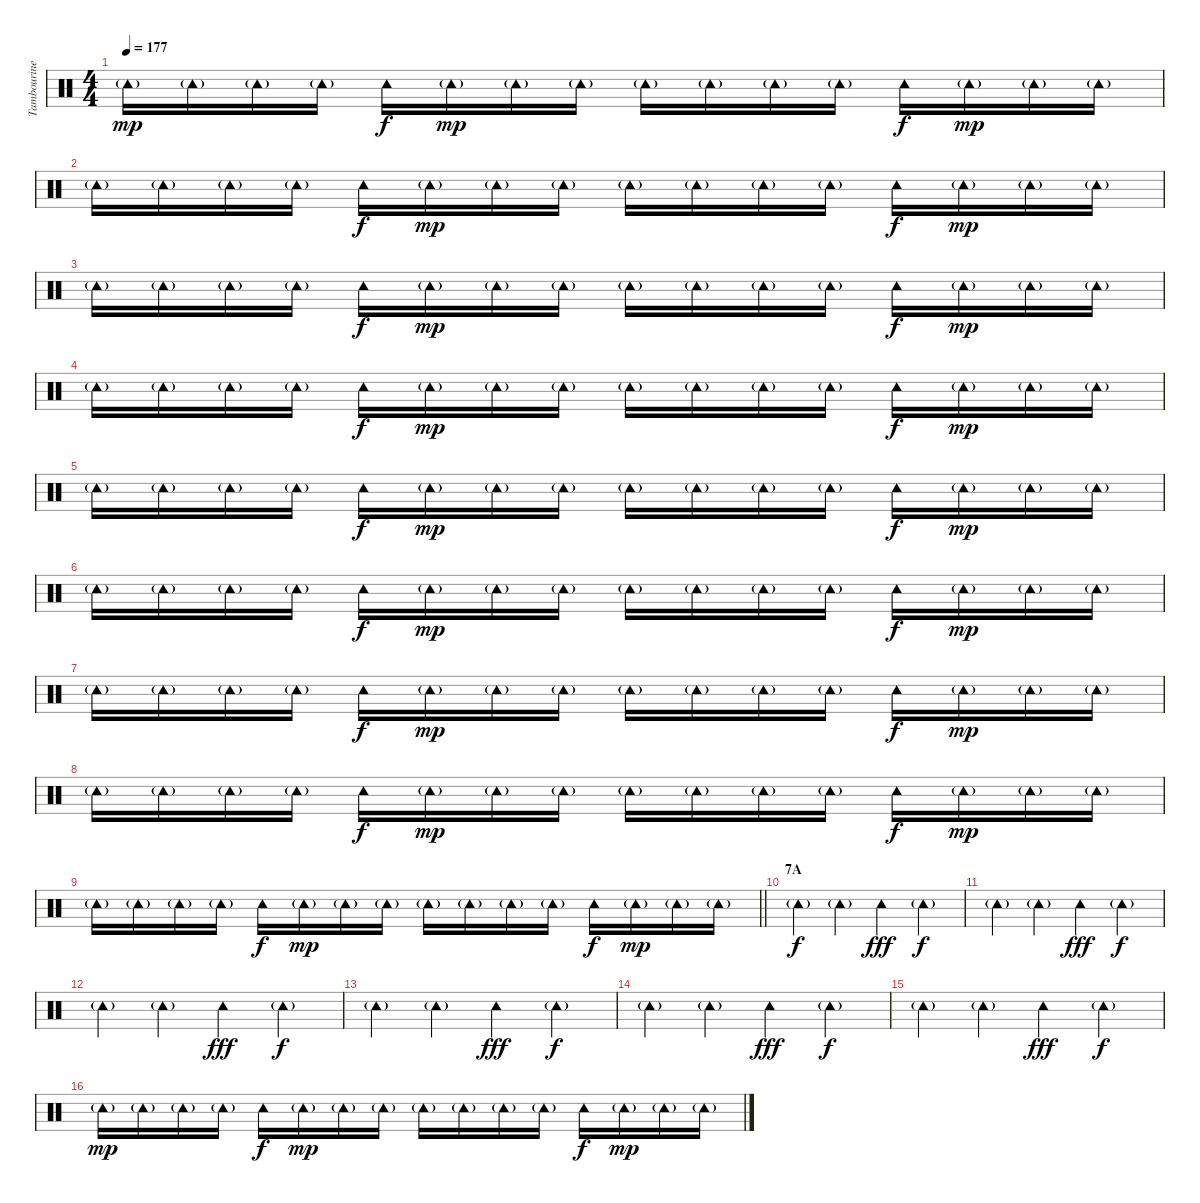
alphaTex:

\track ("Tambourine" "Tambourine") {instrument percussion}
\staff {score}
\articulation defaults
\ts (4 4)
\tempo 177
\clef neutral
\ks c "Tambourine (hit)"{g}.16{dy mp} "Tambourine (hit)"{g}.16 "Tambourine (hit)"{g}.16 "Tambourine (hit)"{g}.16 "Tambourine (hit)".16{dy f} "Tambourine (hit)"{g}.16{dy mp} "Tambourine (hit)"{g}.16 "Tambourine (hit)"{g}.16 "Tambourine (hit)"{g}.16 "Tambourine (hit)"{g}.16 "Tambourine (hit)"{g}.16 "Tambourine (hit)"{g}.16 "Tambourine (hit)".16{dy f} "Tambourine (hit)"{g}.16{dy mp} "Tambourine (hit)"{g}.16 "Tambourine (hit)"{g}.16
|
"Tambourine (hit)"{g}.16 "Tambourine (hit)"{g}.16 "Tambourine (hit)"{g}.16 "Tambourine (hit)"{g}.16 "Tambourine (hit)".16{dy f} "Tambourine (hit)"{g}.16{dy mp} "Tambourine (hit)"{g}.16 "Tambourine (hit)"{g}.16 "Tambourine (hit)"{g}.16 "Tambourine (hit)"{g}.16 "Tambourine (hit)"{g}.16 "Tambourine (hit)"{g}.16 "Tambourine (hit)".16{dy f} "Tambourine (hit)"{g}.16{dy mp} "Tambourine (hit)"{g}.16 "Tambourine (hit)"{g}.16 |
"Tambourine (hit)"{g}.16 "Tambourine (hit)"{g}.16 "Tambourine (hit)"{g}.16 "Tambourine (hit)"{g}.16 "Tambourine (hit)".16{dy f} "Tambourine (hit)"{g}.16{dy mp} "Tambourine (hit)"{g}.16 "Tambourine (hit)"{g}.16 "Tambourine (hit)"{g}.16 "Tambourine (hit)"{g}.16 "Tambourine (hit)"{g}.16 "Tambourine (hit)"{g}.16 "Tambourine (hit)".16{dy f} "Tambourine (hit)"{g}.16{dy mp} "Tambourine (hit)"{g}.16 "Tambourine (hit)"{g}.16 |
"Tambourine (hit)"{g}.16 "Tambourine (hit)"{g}.16 "Tambourine (hit)"{g}.16 "Tambourine (hit)"{g}.16 "Tambourine (hit)".16{dy f} "Tambourine (hit)"{g}.16{dy mp} "Tambourine (hit)"{g}.16 "Tambourine (hit)"{g}.16 "Tambourine (hit)"{g}.16 "Tambourine (hit)"{g}.16 "Tambourine (hit)"{g}.16 "Tambourine (hit)"{g}.16 "Tambourine (hit)".16{dy f} "Tambourine (hit)"{g}.16{dy mp} "Tambourine (hit)"{g}.16 "Tambourine (hit)"{g}.16 |
"Tambourine (hit)"{g}.16 "Tambourine (hit)"{g}.16 "Tambourine (hit)"{g}.16 "Tambourine (hit)"{g}.16 "Tambourine (hit)".16{dy f} "Tambourine (hit)"{g}.16{dy mp} "Tambourine (hit)"{g}.16 "Tambourine (hit)"{g}.16 "Tambourine (hit)"{g}.16 "Tambourine (hit)"{g}.16 "Tambourine (hit)"{g}.16 "Tambourine (hit)"{g}.16 "Tambourine (hit)".16{dy f} "Tambourine (hit)"{g}.16{dy mp} "Tambourine (hit)"{g}.16 "Tambourine (hit)"{g}.16 |
"Tambourine (hit)"{g}.16 "Tambourine (hit)"{g}.16 "Tambourine (hit)"{g}.16 "Tambourine (hit)"{g}.16 "Tambourine (hit)".16{dy f} "Tambourine (hit)"{g}.16{dy mp} "Tambourine (hit)"{g}.16 "Tambourine (hit)"{g}.16 "Tambourine (hit)"{g}.16 "Tambourine (hit)"{g}.16 "Tambourine (hit)"{g}.16 "Tambourine (hit)"{g}.16 "Tambourine (hit)".16{dy f} "Tambourine (hit)"{g}.16{dy mp} "Tambourine (hit)"{g}.16 "Tambourine (hit)"{g}.16 |
"Tambourine (hit)"{g}.16 "Tambourine (hit)"{g}.16 "Tambourine (hit)"{g}.16 "Tambourine (hit)"{g}.16 "Tambourine (hit)".16{dy f} "Tambourine (hit)"{g}.16{dy mp} "Tambourine (hit)"{g}.16 "Tambourine (hit)"{g}.16 "Tambourine (hit)"{g}.16 "Tambourine (hit)"{g}.16 "Tambourine (hit)"{g}.16 "Tambourine (hit)"{g}.16 "Tambourine (hit)".16{dy f} "Tambourine (hit)"{g}.16{dy mp} "Tambourine (hit)"{g}.16 "Tambourine (hit)"{g}.16 |
"Tambourine (hit)"{g}.16 "Tambourine (hit)"{g}.16 "Tambourine (hit)"{g}.16 "Tambourine (hit)"{g}.16 "Tambourine (hit)".16{dy f} "Tambourine (hit)"{g}.16{dy mp} "Tambourine (hit)"{g}.16 "Tambourine (hit)"{g}.16 "Tambourine (hit)"{g}.16 "Tambourine (hit)"{g}.16 "Tambourine (hit)"{g}.16 "Tambourine (hit)"{g}.16 "Tambourine (hit)".16{dy f} "Tambourine (hit)"{g}.16{dy mp} "Tambourine (hit)"{g}.16 "Tambourine (hit)"{g}.16 |
\barLineRight lightlight "Tambourine (hit)"{g}.16 "Tambourine (hit)"{g}.16 "Tambourine (hit)"{g}.16 "Tambourine (hit)"{g}.16 "Tambourine (hit)".16{dy f} "Tambourine (hit)"{g}.16{dy mp} "Tambourine (hit)"{g}.16 "Tambourine (hit)"{g}.16 "Tambourine (hit)"{g}.16 "Tambourine (hit)"{g}.16 "Tambourine (hit)"{g}.16 "Tambourine (hit)"{g}.16 "Tambourine (hit)".16{dy f} "Tambourine (hit)"{g}.16{dy mp} "Tambourine (hit)"{g}.16 "Tambourine (hit)"{g}.16
|
\section ("" "7A")
"Tambourine (hit)"{g}.4{dy f} "Tambourine (hit)"{g}.4 "Tambourine (hit)".4{dy fff} "Tambourine (hit)"{g}.4{dy f} |
"Tambourine (hit)"{g}.4 "Tambourine (hit)"{g}.4 "Tambourine (hit)".4{dy fff} "Tambourine (hit)"{g}.4{dy f} |
"Tambourine (hit)"{g}.4 "Tambourine (hit)"{g}.4 "Tambourine (hit)".4{dy fff} "Tambourine (hit)"{g}.4{dy f} |
"Tambourine (hit)"{g}.4 "Tambourine (hit)"{g}.4 "Tambourine (hit)".4{dy fff} "Tambourine (hit)"{g}.4{dy f} |
"Tambourine (hit)"{g}.4 "Tambourine (hit)"{g}.4 "Tambourine (hit)".4{dy fff} "Tambourine (hit)"{g}.4{dy f} |
"Tambourine (hit)"{g}.4 "Tambourine (hit)"{g}.4 "Tambourine (hit)".4{dy fff} "Tambourine (hit)"{g}.4{dy f} |
"Tambourine (hit)"{g}.16{dy mp} "Tambourine (hit)"{g}.16 "Tambourine (hit)"{g}.16 "Tambourine (hit)"{g}.16 "Tambourine (hit)".16{dy f} "Tambourine (hit)"{g}.16{dy mp} "Tambourine (hit)"{g}.16 "Tambourine (hit)"{g}.16 "Tambourine (hit)"{g}.16 "Tambourine (hit)"{g}.16 "Tambourine (hit)"{g}.16 "Tambourine (hit)"{g}.16 "Tambourine (hit)".16{dy f} "Tambourine (hit)"{g}.16{dy mp} "Tambourine (hit)"{g}.16 "Tambourine (hit)"{g}.16
